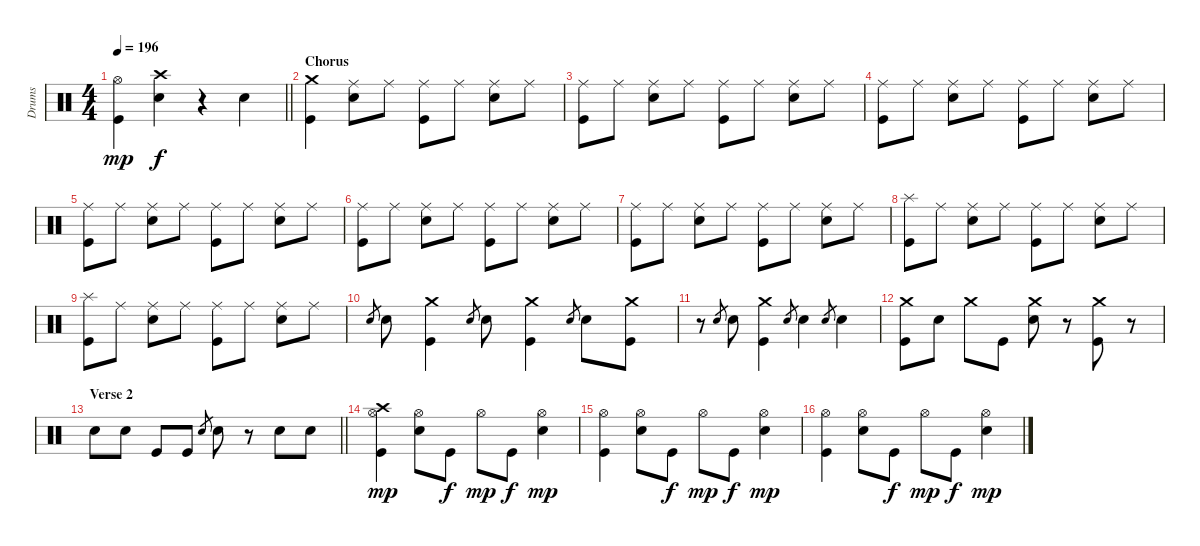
\track ("Drums" "Drums") {instrument percussion}
\staff {score}
\articulation defaults
\ts (4 4)
\tempo 196
\clef neutral
\barLineRight lightlight
\ks c
("Hi-Hat (open)" "Kick (hit)").4{dy mp} ("Crash high (hit)" "Electric Snare (hit)").4{dy f} r.4 "Electric Snare (hit)".4 |
\section ("" "Chorus")
("Crash medium (hit)" "Kick (hit)").4 ("Ride (middle)" "Electric Snare (hit)").8 "Ride (middle)".8 ("Ride (middle)" "Kick (hit)").8 "Ride (middle)".8 ("Ride (middle)" "Electric Snare (hit)").8 "Ride (middle)".8 |
("Ride (middle)" "Kick (hit)").8 "Ride (middle)".8 ("Ride (middle)" "Electric Snare (hit)").8 "Ride (middle)".8 ("Ride (middle)" "Kick (hit)").8 "Ride (middle)".8 ("Ride (middle)" "Electric Snare (hit)").8 "Ride (middle)".8 |
("Ride (middle)" "Kick (hit)").8 "Ride (middle)".8 ("Ride (middle)" "Electric Snare (hit)").8 "Ride (middle)".8 ("Ride (middle)" "Kick (hit)").8 "Ride (middle)".8 ("Ride (middle)" "Electric Snare (hit)").8 "Ride (middle)".8 |
("Ride (middle)" "Kick (hit)").8 "Ride (middle)".8 ("Ride (middle)" "Electric Snare (hit)").8 "Ride (middle)".8 ("Ride (middle)" "Kick (hit)").8 "Ride (middle)".8 ("Ride (middle)" "Electric Snare (hit)").8 "Ride (middle)".8 |
("Ride (middle)" "Kick (hit)").8 "Ride (middle)".8 ("Ride (middle)" "Electric Snare (hit)").8 "Ride (middle)".8 ("Ride (middle)" "Kick (hit)").8 "Ride (middle)".8 ("Ride (middle)" "Electric Snare (hit)").8 "Ride (middle)".8 |
("Ride (middle)" "Kick (hit)").8 "Ride (middle)".8 ("Ride (middle)" "Electric Snare (hit)").8 "Ride (middle)".8 ("Ride (middle)" "Kick (hit)").8 "Ride (middle)".8 ("Ride (middle)" "Electric Snare (hit)").8 "Ride (middle)".8 |
("Splash (hit)" "Kick (hit)").8 "Ride (middle)".8 ("Ride (middle)" "Electric Snare (hit)").8 "Ride (middle)".8 ("Ride (middle)" "Kick (hit)").8 "Ride (middle)".8 ("Ride (middle)" "Electric Snare (hit)").8 "Ride (middle)".8 |
("Splash (hit)" "Kick (hit)").8 "Ride (middle)".8 ("Ride (middle)" "Electric Snare (hit)").8 "Ride (middle)".8 ("Ride (middle)" "Kick (hit)").8 "Ride (middle)".8 ("Ride (middle)" "Electric Snare (hit)").8 "Ride (middle)".8 |
"Electric Snare (hit)".8{gr} "Electric Snare (hit)".8 ("Crash medium (hit)" "Kick (hit)").4 "Electric Snare (hit)".8{gr} "Electric Snare (hit)".8 ("Crash medium (hit)" "Kick (hit)").4 "Electric Snare (hit)".8{gr} "Electric Snare (hit)".8 ("Crash medium (hit)" "Kick (hit)").8 |
r.8 "Electric Snare (hit)".8{gr} "Electric Snare (hit)".8 ("Crash medium (hit)" "Kick (hit)").4 "Electric Snare (hit)".8{gr} "Electric Snare (hit)".4 "Electric Snare (hit)".8{gr} "Electric Snare (hit)".4 |
("Crash medium (hit)" "Kick (hit)").8 "Electric Snare (hit)".8 "Crash medium (hit)".8 "Kick (hit)".8 ("Crash medium (hit)" "Electric Snare (hit)").8 r.8 ("Crash medium (hit)" "Kick (hit)").8 r.8 |
\section ("" "Verse 2")
\barLineRight lightlight "Electric Snare (hit)".8 "Electric Snare (hit)".8 "Kick (hit)".8 "Kick (hit)".8 "Electric Snare (hit)".8{gr} "Electric Snare (hit)".8
r.8 "Electric Snare (hit)".8 "Electric Snare (hit)".8 |
("Crash high (hit)" "Hi-Hat (open)" "Kick (hit)").4{dy mp} ("Hi-Hat (open)" "Electric Snare (hit)").8 "Kick (hit)".8{dy f} "Hi-Hat (open)".8{dy mp} "Kick (hit)".8{dy f} ("Hi-Hat (open)" "Electric Snare (hit)").4{dy mp} |
("Hi-Hat (open)" "Kick (hit)").4 ("Hi-Hat (open)" "Electric Snare (hit)").8 "Kick (hit)".8{dy f} "Hi-Hat (open)".8{dy mp} "Kick (hit)".8{dy f} ("Hi-Hat (open)" "Electric Snare (hit)").4{dy mp} |
("Hi-Hat (open)" "Kick (hit)").4 ("Hi-Hat (open)" "Electric Snare (hit)").8 "Kick (hit)".8{dy f} "Hi-Hat (open)".8{dy mp} "Kick (hit)".8{dy f} ("Hi-Hat (open)" "Electric Snare (hit)").4{dy mp}
